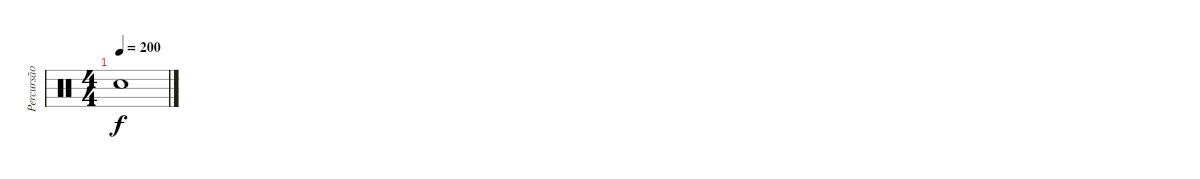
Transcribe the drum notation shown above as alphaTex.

\track ("Percursão" "Percursão") {instrument percussion}
\staff {score}
\articulation defaults
\ts (4 4)
\tempo 200
\clef neutral
\ks c "Snare (hit)"{t}.1{dy f}
